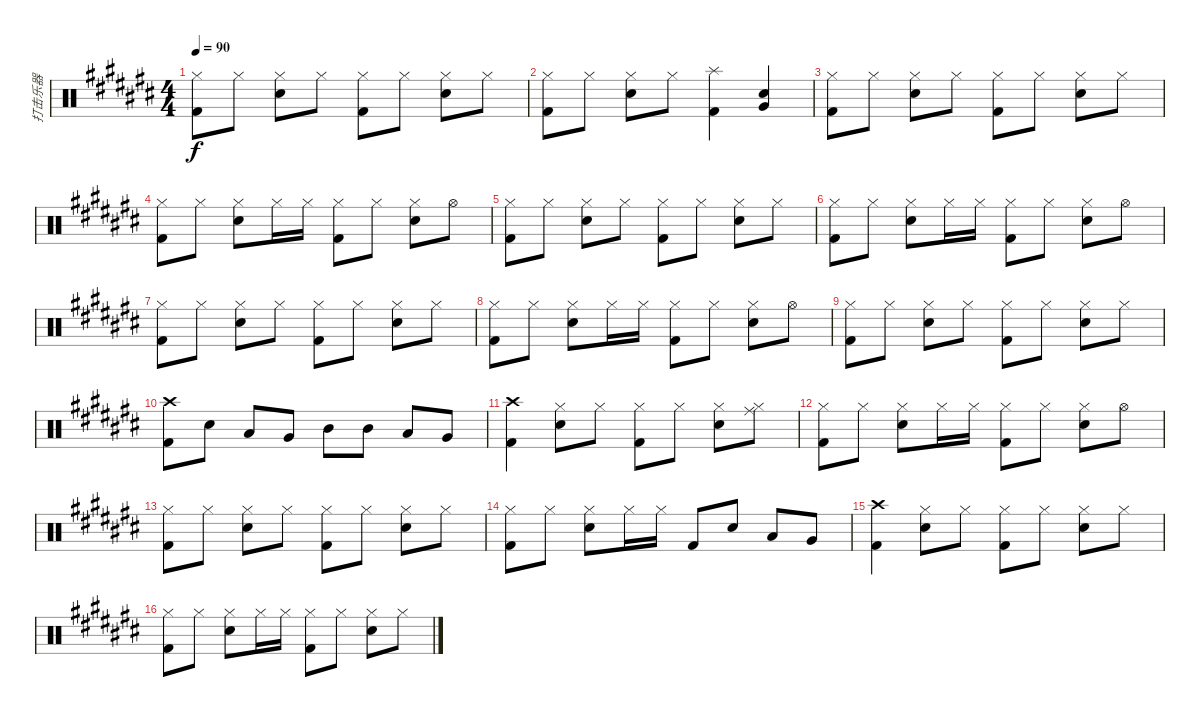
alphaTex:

\track ("打击乐器" "打击乐器") {instrument percussion}
\staff {score}
\articulation defaults
\ts (4 4)
\tempo 90
\clef neutral
\ks c#
("Hi-Hat (closed)" "Kick (hit) 2").8{dy f} "Hi-Hat (closed)".8 ("Hi-Hat (closed)" "Snare (hit) 2").8 "Hi-Hat (closed)".8 ("Hi-Hat (closed)" "Kick (hit) 2").8 "Hi-Hat (closed)".8 ("Hi-Hat (closed)" "Snare (hit) 2").8 "Hi-Hat (closed)".8 |
("Hi-Hat (closed)" "Kick (hit) 2").8 "Hi-Hat (closed)".8 ("Hi-Hat (closed)" "Snare (hit) 2").8 "Hi-Hat (closed)".8 ("Splash (hit)" "Kick (hit) 2").4 ("Very Low Tom (hit)" "Snare (hit) 2").4 |
("Hi-Hat (closed)" "Kick (hit) 2").8 "Hi-Hat (closed)".8 ("Hi-Hat (closed)" "Snare (hit) 2").8 "Hi-Hat (closed)".8 ("Hi-Hat (closed)" "Kick (hit) 2").8 "Hi-Hat (closed)".8 ("Hi-Hat (closed)" "Snare (hit) 2").8 "Hi-Hat (closed)".8 |
("Hi-Hat (closed)" "Kick (hit) 2").8 "Hi-Hat (closed)".8 ("Hi-Hat (closed)" "Snare (hit) 2").8 "Hi-Hat (closed)".16 "Hi-Hat (closed)".16 ("Hi-Hat (closed)" "Kick (hit) 2").8 "Hi-Hat (closed)".8 ("Hi-Hat (closed)" "Snare (hit) 2").8 "Hi-Hat (open)".8 |
("Hi-Hat (closed)" "Kick (hit) 2").8 "Hi-Hat (closed)".8 ("Hi-Hat (closed)" "Snare (hit) 2").8 "Hi-Hat (closed)".8 ("Hi-Hat (closed)" "Kick (hit) 2").8 "Hi-Hat (closed)".8 ("Hi-Hat (closed)" "Snare (hit) 2").8 "Hi-Hat (closed)".8 |
("Hi-Hat (closed)" "Kick (hit) 2").8 "Hi-Hat (closed)".8 ("Hi-Hat (closed)" "Snare (hit) 2").8 "Hi-Hat (closed)".16 "Hi-Hat (closed)".16 ("Hi-Hat (closed)" "Kick (hit) 2").8 "Hi-Hat (closed)".8 ("Hi-Hat (closed)" "Snare (hit) 2").8 "Hi-Hat (open)".8 |
("Hi-Hat (closed)" "Kick (hit) 2").8 "Hi-Hat (closed)".8 ("Hi-Hat (closed)" "Snare (hit) 2").8 "Hi-Hat (closed)".8 ("Hi-Hat (closed)" "Kick (hit) 2").8 "Hi-Hat (closed)".8 ("Hi-Hat (closed)" "Snare (hit) 2").8 "Hi-Hat (closed)".8 |
("Hi-Hat (closed)" "Kick (hit) 2").8 "Hi-Hat (closed)".8 ("Hi-Hat (closed)" "Snare (hit) 2").8 "Hi-Hat (closed)".16 "Hi-Hat (closed)".16 ("Hi-Hat (closed)" "Kick (hit) 2").8 "Hi-Hat (closed)".8 ("Hi-Hat (closed)" "Snare (hit) 2").8 "Hi-Hat (open)".8 |
("Hi-Hat (closed)" "Kick (hit) 2").8 "Hi-Hat (closed)".8 ("Hi-Hat (closed)" "Snare (hit) 2").8 "Hi-Hat (closed)".8 ("Hi-Hat (closed)" "Kick (hit) 2").8 "Hi-Hat (closed)".8 ("Hi-Hat (closed)" "Snare (hit) 2").8 "Hi-Hat (closed)".8 |
("Crash high (hit)" "Kick (hit) 2").8 "Snare (hit) 2".8 "Low Tom (hit)".8 "Very Low Tom (hit)".8 "Mid Tom (hit)".8 "Mid Tom (hit)".8 "Low Tom (hit)".8 "Very Low Tom (hit)".8 |
("Crash high (hit)" "Kick (hit) 2").4 ("Hi-Hat (closed)" "Snare (hit) 2").8 "Hi-Hat (closed)".8 ("Hi-Hat (closed)" "Kick (hit) 2").8 "Hi-Hat (closed)".8 ("Hi-Hat (closed)" "Snare (hit) 2").8 ("Hi-Hat (closed)" "Ride (middle)").8 |
("Hi-Hat (closed)" "Kick (hit) 2").8 "Hi-Hat (closed)".8 ("Hi-Hat (closed)" "Snare (hit) 2").8 "Hi-Hat (closed)".16 "Hi-Hat (closed)".16 ("Hi-Hat (closed)" "Kick (hit) 2").8 "Hi-Hat (closed)".8 ("Hi-Hat (closed)" "Snare (hit) 2").8 "Hi-Hat (open)".8 |
("Hi-Hat (closed)" "Kick (hit) 2").8 "Hi-Hat (closed)".8 ("Hi-Hat (closed)" "Snare (hit) 2").8 "Hi-Hat (closed)".8 ("Hi-Hat (closed)" "Kick (hit) 2").8 "Hi-Hat (closed)".8 ("Hi-Hat (closed)" "Snare (hit) 2").8 "Hi-Hat (closed)".8 |
("Hi-Hat (closed)" "Kick (hit) 2").8 "Hi-Hat (closed)".8 ("Hi-Hat (closed)" "Snare (hit) 2").8 "Hi-Hat (closed)".16 "Hi-Hat (closed)".16 "Kick (hit) 2".8 "Snare (hit) 2".8 "Low Tom (hit)".8 "Very Low Tom (hit)".8 |
("Crash high (hit)" "Kick (hit) 2").4 ("Hi-Hat (closed)" "Snare (hit) 2").8 "Hi-Hat (closed)".8 ("Hi-Hat (closed)" "Kick (hit) 2").8 "Hi-Hat (closed)".8 ("Hi-Hat (closed)" "Snare (hit) 2").8 "Hi-Hat (closed)".8 |
("Hi-Hat (closed)" "Kick (hit) 2").8 "Hi-Hat (closed)".8 ("Hi-Hat (closed)" "Snare (hit) 2").8 "Hi-Hat (closed)".16 "Hi-Hat (closed)".16 ("Hi-Hat (closed)" "Kick (hit) 2").8 "Hi-Hat (closed)".8 ("Hi-Hat (closed)" "Snare (hit) 2").8 "Hi-Hat (closed)".8
